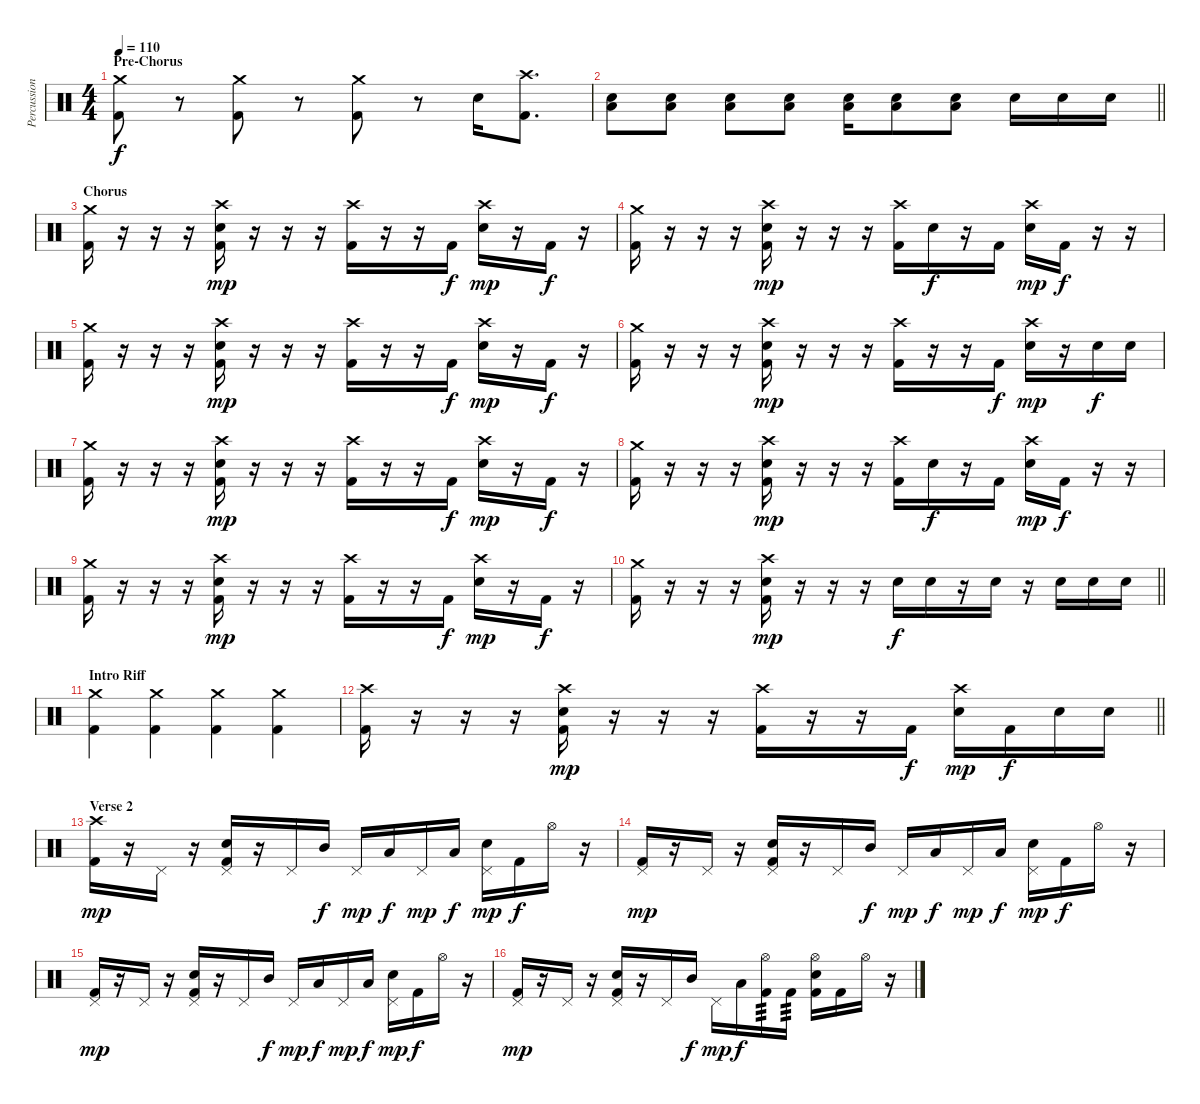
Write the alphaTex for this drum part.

\track ("Percussion" "Percussion") {instrument percussion}
\staff {score}
\articulation defaults
\ts (4 4)
\section ("" "Pre-Chorus")
\tempo 110
\clef neutral
\ks c
("Crash medium (hit)" "Kick (hit) 2").8{dy f} r.8 ("Crash medium (hit)" "Kick (hit) 2").8 r.8 ("Crash medium (hit)" "Kick (hit) 2").8 r.8 "Electric Snare (hit)".16 ("Crash high (hit)" "Kick (hit) 2").8{d} |
\barLineRight lightlight
("Low Floor Tom (hit)" "Electric Snare (hit)").8 ("Low Floor Tom (hit)" "Electric Snare (hit)").8 ("Low Floor Tom (hit)" "Electric Snare (hit)").8 ("Low Floor Tom (hit)" "Electric Snare (hit)").8 ("Low Floor Tom (hit)" "Electric Snare (hit)").16 ("Low Floor Tom (hit)" "Electric Snare (hit)").8 ("Low Floor Tom (hit)" "Electric Snare (hit)").8 "Electric Snare (hit)".16 "Electric Snare (hit)".16 "Electric Snare (hit)".16 |
\section ("" "Chorus")
("Crash medium (hit)" "Kick (hit) 2").16 r.16 r.16 r.16 ("Crash high (hit)" "Electric Snare (hit)" "Kick (hit) 2").16{dy mp} r.16 r.16 r.16 ("Crash high (hit)" "Kick (hit) 2").16 r.16 r.16 "Kick (hit) 2".16{dy f} ("Crash high (hit)" "Electric Snare (hit)").16{dy mp} r.16 "Kick (hit) 2".16{dy f} r.16 |
("Crash medium (hit)" "Kick (hit) 2").16 r.16 r.16 r.16 ("Crash high (hit)" "Electric Snare (hit)" "Kick (hit) 2").16{dy mp} r.16 r.16 r.16 ("Crash high (hit)" "Kick (hit) 2").16 "Electric Snare (hit)".16{dy f} r.16 "Kick (hit) 2".16 ("Crash high (hit)" "Electric Snare (hit)").16{dy mp} "Kick (hit) 2".16{dy f} r.16 r.16 |
("Crash medium (hit)" "Kick (hit) 2").16 r.16 r.16 r.16 ("Crash high (hit)" "Electric Snare (hit)" "Kick (hit) 2").16{dy mp} r.16 r.16 r.16 ("Crash high (hit)" "Kick (hit) 2").16 r.16 r.16 "Kick (hit) 2".16{dy f} ("Crash high (hit)" "Electric Snare (hit)").16{dy mp} r.16 "Kick (hit) 2".16{dy f} r.16 |
("Crash medium (hit)" "Kick (hit) 2").16 r.16 r.16 r.16 ("Crash high (hit)" "Electric Snare (hit)" "Kick (hit) 2").16{dy mp} r.16 r.16 r.16 ("Crash high (hit)" "Kick (hit) 2").16 r.16 r.16 "Kick (hit) 2".16{dy f} ("Crash high (hit)" "Electric Snare (hit)").16{dy mp} r.16 "Electric Snare (hit)".16{dy f} "Electric Snare (hit)".16 |
("Crash medium (hit)" "Kick (hit) 2").16 r.16 r.16 r.16 ("Crash high (hit)" "Electric Snare (hit)" "Kick (hit) 2").16{dy mp} r.16 r.16 r.16 ("Crash high (hit)" "Kick (hit) 2").16 r.16 r.16 "Kick (hit) 2".16{dy f} ("Crash high (hit)" "Electric Snare (hit)").16{dy mp} r.16 "Kick (hit) 2".16{dy f} r.16 |
("Crash medium (hit)" "Kick (hit) 2").16 r.16 r.16 r.16 ("Crash high (hit)" "Electric Snare (hit)" "Kick (hit) 2").16{dy mp} r.16 r.16 r.16 ("Crash high (hit)" "Kick (hit) 2").16 "Electric Snare (hit)".16{dy f} r.16 "Kick (hit) 2".16 ("Crash high (hit)" "Electric Snare (hit)").16{dy mp} "Kick (hit) 2".16{dy f} r.16 r.16 |
("Crash medium (hit)" "Kick (hit) 2").16 r.16 r.16 r.16 ("Crash high (hit)" "Electric Snare (hit)" "Kick (hit) 2").16{dy mp} r.16 r.16 r.16 ("Crash high (hit)" "Kick (hit) 2").16 r.16 r.16 "Kick (hit) 2".16{dy f} ("Crash high (hit)" "Electric Snare (hit)").16{dy mp} r.16 "Kick (hit) 2".16{dy f} r.16 |
\barLineRight lightlight
("Crash medium (hit)" "Kick (hit) 2").16 r.16 r.16 r.16 ("Crash high (hit)" "Electric Snare (hit)" "Kick (hit) 2").16{dy mp} r.16 r.16 r.16 "Electric Snare (hit)".16{dy f} "Electric Snare (hit)".16 r.16 "Electric Snare (hit)".16 r.16 "Electric Snare (hit)".16 "Electric Snare (hit)".16 "Electric Snare (hit)".16 |
\section ("" "Intro Riff")
("Crash medium (hit)" "Kick (hit) 2").4 ("Crash medium (hit)" "Kick (hit) 2").4 ("Crash medium (hit)" "Kick (hit) 2").4 ("Crash medium (hit)" "Kick (hit) 2").4 |
\barLineRight lightlight
("Crash high (hit)" "Kick (hit) 2").16 r.16 r.16 r.16 ("Crash high (hit)" "Electric Snare (hit)" "Kick (hit) 2").16{dy mp} r.16 r.16 r.16 ("Crash high (hit)" "Kick (hit) 2").16 r.16 r.16 "Kick (hit) 2".16{dy f} ("Crash high (hit)" "Electric Snare (hit)").16{dy mp} "Kick (hit) 2".16{dy f} "Electric Snare (hit)".16 "Electric Snare (hit)".16 |
\section ("" "Verse 2")
("Crash high (hit)" "Kick (hit) 2").16{dy mp} r.16 "Pedal Hi-Hat (hit)".16 r.16 ("Pedal Hi-Hat (hit)" "Electric Snare (hit)" "Kick (hit) 2").16 r.16 "Pedal Hi-Hat (hit)".16 "Mid Tom (hit)".16{dy f} "Pedal Hi-Hat (hit)".16{dy mp} "Low Tom (hit)".16{dy f} "Pedal Hi-Hat (hit)".16{dy mp} "Low Floor Tom (hit)".16{dy f} ("Pedal Hi-Hat (hit)" "Electric Snare (hit)").16{dy mp} "Kick (hit) 2".16{dy f} "Hi-Hat (open)".16 r.16 |
("Pedal Hi-Hat (hit)" "Kick (hit) 2").16{dy mp} r.16 "Pedal Hi-Hat (hit)".16 r.16 ("Pedal Hi-Hat (hit)" "Electric Snare (hit)" "Kick (hit) 2").16 r.16 "Pedal Hi-Hat (hit)".16 "Mid Tom (hit)".16{dy f} "Pedal Hi-Hat (hit)".16{dy mp} "Low Tom (hit)".16{dy f} "Pedal Hi-Hat (hit)".16{dy mp} "Low Floor Tom (hit)".16{dy f} ("Pedal Hi-Hat (hit)" "Electric Snare (hit)").16{dy mp} "Kick (hit) 2".16{dy f} "Hi-Hat (open)".16 r.16 |
("Pedal Hi-Hat (hit)" "Kick (hit) 2").16{dy mp} r.16 "Pedal Hi-Hat (hit)".16 r.16 ("Pedal Hi-Hat (hit)" "Electric Snare (hit)" "Kick (hit) 2").16 r.16 "Pedal Hi-Hat (hit)".16 "Mid Tom (hit)".16{dy f} "Pedal Hi-Hat (hit)".16{dy mp} "Low Tom (hit)".16{dy f} "Pedal Hi-Hat (hit)".16{dy mp} "Low Floor Tom (hit)".16{dy f} ("Pedal Hi-Hat (hit)" "Electric Snare (hit)").16{dy mp} "Kick (hit) 2".16{dy f} "Hi-Hat (open)".16 r.16 |
("Pedal Hi-Hat (hit)" "Kick (hit) 2").16{dy mp} r.16 "Pedal Hi-Hat (hit)".16 r.16 ("Pedal Hi-Hat (hit)" "Electric Snare (hit)" "Kick (hit) 2").16 r.16 "Pedal Hi-Hat (hit)".16 "Mid Tom (hit)".16{dy f} "Pedal Hi-Hat (hit)".16{dy mp} "Low Tom (hit)".16{dy f} ("Hi-Hat (open)" "Kick (hit) 2").16{tp 3} "Kick (hit) 2".16{tp 3} ("Hi-Hat (open)" "Electric Snare (hit)" "Kick (hit) 2").16 "Kick (hit) 2".16 "Hi-Hat (open)".16 r.16
